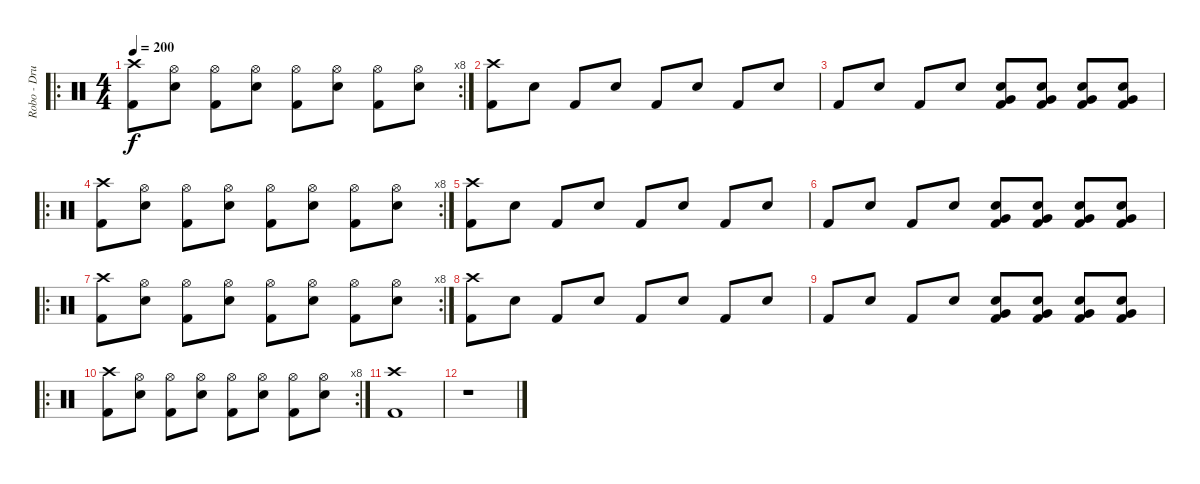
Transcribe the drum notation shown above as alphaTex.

\track ("Robo - Drums" "Robo - Dru") {instrument percussion}
\staff {score}
\articulation defaults
\ro
\rc 8
\ts (4 4)
\tempo 200
\clef neutral
\ks c
("Crash high (hit)" "Kick (hit) 2").8{dy f} ("Hi-Hat (open)" "Snare (hit) 2").8 ("Hi-Hat (open)" "Kick (hit) 2").8 ("Hi-Hat (open)" "Snare (hit) 2").8 ("Hi-Hat (open)" "Kick (hit) 2").8 ("Hi-Hat (open)" "Snare (hit) 2").8 ("Hi-Hat (open)" "Kick (hit) 2").8 ("Hi-Hat (open)" "Snare (hit) 2").8 |
("Crash high (hit)" "Kick (hit) 2").8 "Snare (hit) 2".8 "Kick (hit) 2".8 "Snare (hit) 2".8 "Kick (hit) 2".8 "Snare (hit) 2".8 "Kick (hit) 2".8 "Snare (hit) 2".8 |
"Kick (hit) 2".8 "Snare (hit) 2".8 "Kick (hit) 2".8 "Snare (hit) 2".8 ("Very Low Tom (hit)" "Snare (hit) 2" "Kick (hit) 2").8 ("Very Low Tom (hit)" "Snare (hit) 2" "Kick (hit) 2").8 ("Very Low Tom (hit)" "Snare (hit) 2" "Kick (hit) 2").8 ("Very Low Tom (hit)" "Snare (hit) 2" "Kick (hit) 2").8 |
\ro
\rc 8
("Crash high (hit)" "Kick (hit) 2").8 ("Hi-Hat (open)" "Snare (hit) 2").8 ("Hi-Hat (open)" "Kick (hit) 2").8 ("Hi-Hat (open)" "Snare (hit) 2").8 ("Hi-Hat (open)" "Kick (hit) 2").8 ("Hi-Hat (open)" "Snare (hit) 2").8 ("Hi-Hat (open)" "Kick (hit) 2").8 ("Hi-Hat (open)" "Snare (hit) 2").8 |
("Crash high (hit)" "Kick (hit) 2").8 "Snare (hit) 2".8 "Kick (hit) 2".8 "Snare (hit) 2".8 "Kick (hit) 2".8 "Snare (hit) 2".8 "Kick (hit) 2".8 "Snare (hit) 2".8 |
"Kick (hit) 2".8 "Snare (hit) 2".8 "Kick (hit) 2".8 "Snare (hit) 2".8 ("Very Low Tom (hit)" "Snare (hit) 2" "Kick (hit) 2").8 ("Very Low Tom (hit)" "Snare (hit) 2" "Kick (hit) 2").8 ("Very Low Tom (hit)" "Snare (hit) 2" "Kick (hit) 2").8 ("Very Low Tom (hit)" "Snare (hit) 2" "Kick (hit) 2").8 |
\ro
\rc 8
("Crash high (hit)" "Kick (hit) 2").8 ("Hi-Hat (open)" "Snare (hit) 2").8 ("Hi-Hat (open)" "Kick (hit) 2").8 ("Hi-Hat (open)" "Snare (hit) 2").8 ("Hi-Hat (open)" "Kick (hit) 2").8 ("Hi-Hat (open)" "Snare (hit) 2").8 ("Hi-Hat (open)" "Kick (hit) 2").8 ("Hi-Hat (open)" "Snare (hit) 2").8 |
("Crash high (hit)" "Kick (hit) 2").8 "Snare (hit) 2".8 "Kick (hit) 2".8 "Snare (hit) 2".8 "Kick (hit) 2".8 "Snare (hit) 2".8 "Kick (hit) 2".8 "Snare (hit) 2".8 |
"Kick (hit) 2".8 "Snare (hit) 2".8 "Kick (hit) 2".8 "Snare (hit) 2".8 ("Very Low Tom (hit)" "Snare (hit) 2" "Kick (hit) 2").8 ("Very Low Tom (hit)" "Snare (hit) 2" "Kick (hit) 2").8 ("Very Low Tom (hit)" "Snare (hit) 2" "Kick (hit) 2").8 ("Very Low Tom (hit)" "Snare (hit) 2" "Kick (hit) 2").8 |
\ro
\rc 8
("Crash high (hit)" "Kick (hit) 2").8 ("Hi-Hat (open)" "Snare (hit) 2").8 ("Hi-Hat (open)" "Kick (hit) 2").8 ("Hi-Hat (open)" "Snare (hit) 2").8 ("Hi-Hat (open)" "Kick (hit) 2").8 ("Hi-Hat (open)" "Snare (hit) 2").8 ("Hi-Hat (open)" "Kick (hit) 2").8 ("Hi-Hat (open)" "Snare (hit) 2").8 |
("Crash high (hit)" "Kick (hit) 2").1 |
r.1
